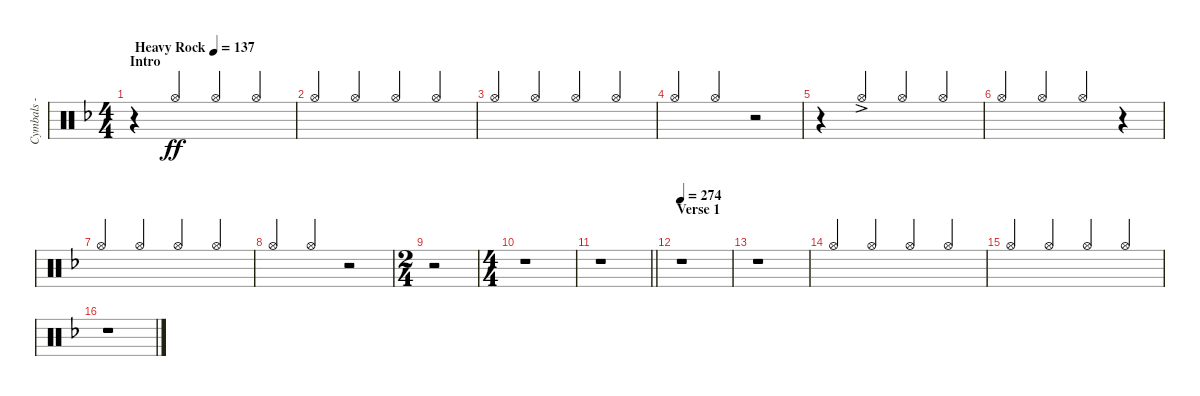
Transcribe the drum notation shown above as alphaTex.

\track ("Cymbals - hi-hat" "Cymbals - ") {instrument percussion}
\staff {score}
\articulation defaults
\ts (4 4)
\section ("" "Intro")
\tempo (137 "Heavy Rock")
\clef neutral
\ks dminor
r.4{dy ff volume 5 balance 12} "Hi-Hat (open)".4{beam Up} "Hi-Hat (open)".4{beam Up} "Hi-Hat (open)".4{beam Up} |
"Hi-Hat (open)".4{beam Up} "Hi-Hat (open)".4{beam Up} "Hi-Hat (open)".4{beam Up} "Hi-Hat (open)".4{beam Up} |
"Hi-Hat (open)".4{beam Up} "Hi-Hat (open)".4{beam Up} "Hi-Hat (open)".4{beam Up} "Hi-Hat (open)".4{beam Up} |
"Hi-Hat (open)".4{beam Up} "Hi-Hat (open)".4{beam Up} r.2 |
r.4 "Hi-Hat (open)"{ac}.4{beam Up} "Hi-Hat (open)".4{beam Up} "Hi-Hat (open)".4{beam Up} |
"Hi-Hat (open)".4{beam Up} "Hi-Hat (open)".4{beam Up} "Hi-Hat (open)".4{beam Up} r.4 |
"Hi-Hat (open)".4{beam Up} "Hi-Hat (open)".4{beam Up} "Hi-Hat (open)".4{beam Up} "Hi-Hat (open)".4{beam Up} |
"Hi-Hat (open)".4{beam Up} "Hi-Hat (open)".4{beam Up} r.2 |
\ts (2 4)
r.2 |
\ts (4 4)
r.1 |
\barLineRight lightlight
r.1 |
\section ("" "Verse 1")
\tempo 274
r.1 |
r.1 |
"Hi-Hat (open)".4{beam Up} "Hi-Hat (open)".4{beam Up} "Hi-Hat (open)".4{beam Up} "Hi-Hat (open)".4{beam Up} |
"Hi-Hat (open)".4{beam Up} "Hi-Hat (open)".4{beam Up} "Hi-Hat (open)".4{beam Up} "Hi-Hat (open)".4{beam Up} |
r.1
